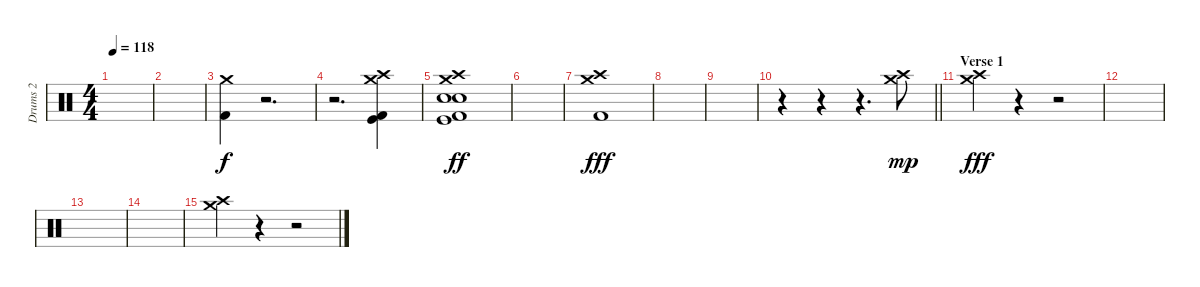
\track ("Drums 2" "Drums 2") {instrument percussion}
\staff {score}
\articulation defaults
\ts (4 4)
\tempo 118
\clef neutral
\ks c
|
|
("Crash medium (hit)" "Kick (hit) 2").4{balance 16} r.2{d balance 8} |
r.2{d} ("Crash medium (hit)" "Crash high (hit)" "Kick (hit) 2" "Kick (hit)").4{balance 16} |
("Crash medium (hit)" "Crash high (hit)" "Kick (hit)" "Kick (hit) 2" "Snare (hit) 2" "Electric Snare (hit)").1{dy ff balance 8} |
|
("Crash medium (hit)" "Crash high (hit)" "Kick (hit) 2").1{dy fff} |
|
|
\barLineRight lightlight
r.4 r.4 r.4{d} ("Crash high (hit)" "Crash medium (hit)").8{dy mp} |
\section ("" "Verse 1")
("Crash high (hit)" "Crash medium (hit)").4{dy fff} r.4 r.2 |
|
|
|
("Crash high (hit)" "Crash medium (hit)").4 r.4 r.2
